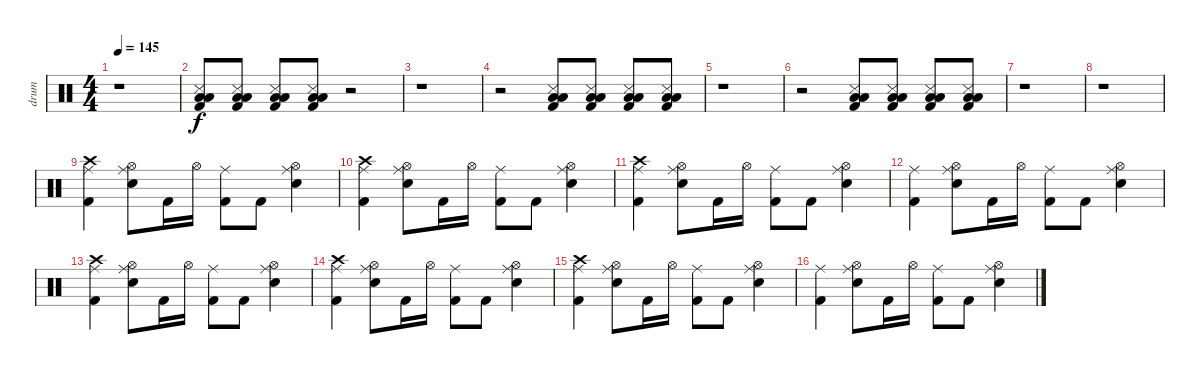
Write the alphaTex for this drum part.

\track ("drum" "drum") {instrument percussion}
\staff {score}
\articulation defaults
\ts (4 4)
\tempo 145
\clef neutral
\ks c
r.1{dy f} |
("Snare (side stick) 3" "Low Floor Tom (hit)" "Low Tom (hit)" "Kick (hit) 2").8 ("Snare (side stick) 3" "Low Floor Tom (hit)" "Low Tom (hit)" "Kick (hit) 2").8 ("Snare (side stick) 3" "Low Floor Tom (hit)" "Low Tom (hit)" "Kick (hit) 2").8 ("Snare (side stick) 3" "Low Floor Tom (hit)" "Low Tom (hit)" "Kick (hit) 2").8 r.2 |
r.1 |
r.2 ("Snare (side stick) 3" "Low Floor Tom (hit)" "Low Tom (hit)" "Kick (hit) 2").8 ("Snare (side stick) 3" "Low Floor Tom (hit)" "Low Tom (hit)" "Kick (hit) 2").8 ("Snare (side stick) 3" "Low Floor Tom (hit)" "Low Tom (hit)" "Kick (hit) 2").8 ("Snare (side stick) 3" "Low Floor Tom (hit)" "Low Tom (hit)" "Kick (hit) 2").8 |
r.1 |
r.2 ("Snare (side stick) 3" "Low Floor Tom (hit)" "Low Tom (hit)" "Kick (hit) 2").8 ("Snare (side stick) 3" "Low Floor Tom (hit)" "Low Tom (hit)" "Kick (hit) 2").8 ("Snare (side stick) 3" "Low Floor Tom (hit)" "Low Tom (hit)" "Kick (hit) 2").8 ("Snare (side stick) 3" "Low Floor Tom (hit)" "Low Tom (hit)" "Kick (hit) 2").8 |
r.1 |
r.1 |
("Crash high (hit)" "Ride (middle)" "Kick (hit) 2").4 ("Snare (hit) 2" "Ride (middle)" "Hi-Hat (open)").8 "Kick (hit) 2".16 "Hi-Hat (open)".16 ("Ride (middle)" "Kick (hit) 2").8 "Kick (hit) 2".8 ("Snare (hit) 2" "Ride (middle)" "Hi-Hat (open)").4 |
("Crash high (hit)" "Ride (middle)" "Kick (hit) 2").4 ("Snare (hit) 2" "Ride (middle)" "Hi-Hat (open)").8 "Kick (hit) 2".16 "Hi-Hat (open)".16 ("Ride (middle)" "Kick (hit) 2").8 "Kick (hit) 2".8 ("Snare (hit) 2" "Ride (middle)" "Hi-Hat (open)").4 |
("Crash high (hit)" "Ride (middle)" "Kick (hit) 2").4 ("Snare (hit) 2" "Ride (middle)" "Hi-Hat (open)").8 "Kick (hit) 2".16 "Hi-Hat (open)".16 ("Ride (middle)" "Kick (hit) 2").8 "Kick (hit) 2".8 ("Snare (hit) 2" "Ride (middle)" "Hi-Hat (open)").4 |
("Ride (middle)" "Kick (hit) 2").4 ("Snare (hit) 2" "Ride (middle)" "Hi-Hat (open)").8 "Kick (hit) 2".16 "Hi-Hat (open)".16 ("Ride (middle)" "Kick (hit) 2").8 "Kick (hit) 2".8 ("Snare (hit) 2" "Ride (middle)" "Hi-Hat (open)").4 |
("Crash high (hit)" "Ride (middle)" "Kick (hit) 2").4 ("Snare (hit) 2" "Ride (middle)" "Hi-Hat (open)").8 "Kick (hit) 2".16 "Hi-Hat (open)".16 ("Ride (middle)" "Kick (hit) 2").8 "Kick (hit) 2".8 ("Snare (hit) 2" "Ride (middle)" "Hi-Hat (open)").4 |
("Crash high (hit)" "Ride (middle)" "Kick (hit) 2").4 ("Snare (hit) 2" "Ride (middle)" "Hi-Hat (open)").8 "Kick (hit) 2".16 "Hi-Hat (open)".16 ("Ride (middle)" "Kick (hit) 2").8 "Kick (hit) 2".8 ("Snare (hit) 2" "Ride (middle)" "Hi-Hat (open)").4 |
("Crash high (hit)" "Ride (middle)" "Kick (hit) 2").4 ("Snare (hit) 2" "Ride (middle)" "Hi-Hat (open)").8 "Kick (hit) 2".16 "Hi-Hat (open)".16 ("Ride (middle)" "Kick (hit) 2").8 "Kick (hit) 2".8 ("Snare (hit) 2" "Ride (middle)" "Hi-Hat (open)").4 |
("Ride (middle)" "Kick (hit) 2").4 ("Snare (hit) 2" "Ride (middle)" "Hi-Hat (open)").8 "Kick (hit) 2".16 "Hi-Hat (open)".16 ("Ride (middle)" "Kick (hit) 2").8 "Kick (hit) 2".8 ("Snare (hit) 2" "Ride (middle)" "Hi-Hat (open)").4
